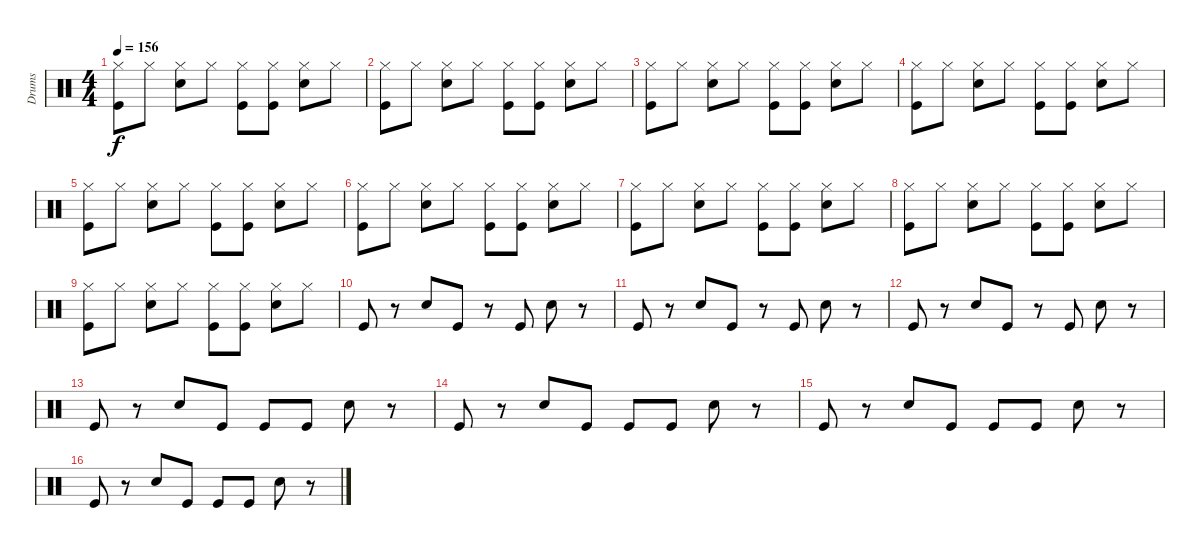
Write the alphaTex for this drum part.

\track ("Drums" "Drums") {instrument percussion}
\staff {score}
\articulation defaults
\ts (4 4)
\tempo 156
\clef neutral
\ks c
("Kick (hit)" "Hi-Hat (closed)").8{dy f} "Hi-Hat (closed)".8 ("Snare (hit) 2" "Hi-Hat (closed)").8 "Hi-Hat (closed)".8 ("Kick (hit)" "Hi-Hat (closed)").8 ("Kick (hit)" "Hi-Hat (closed)").8 ("Snare (hit) 2" "Hi-Hat (closed)").8 "Hi-Hat (closed)".8 |
("Kick (hit)" "Hi-Hat (closed)").8 "Hi-Hat (closed)".8 ("Snare (hit) 2" "Hi-Hat (closed)").8 "Hi-Hat (closed)".8 ("Kick (hit)" "Hi-Hat (closed)").8 ("Kick (hit)" "Hi-Hat (closed)").8 ("Snare (hit) 2" "Hi-Hat (closed)").8 "Hi-Hat (closed)".8 |
("Kick (hit)" "Hi-Hat (closed)").8 "Hi-Hat (closed)".8 ("Snare (hit) 2" "Hi-Hat (closed)").8 "Hi-Hat (closed)".8 ("Kick (hit)" "Hi-Hat (closed)").8 ("Kick (hit)" "Hi-Hat (closed)").8 ("Snare (hit) 2" "Hi-Hat (closed)").8 "Hi-Hat (closed)".8 |
("Kick (hit)" "Hi-Hat (closed)").8 "Hi-Hat (closed)".8 ("Snare (hit) 2" "Hi-Hat (closed)").8 "Hi-Hat (closed)".8 ("Kick (hit)" "Hi-Hat (closed)").8 ("Kick (hit)" "Hi-Hat (closed)").8 ("Snare (hit) 2" "Hi-Hat (closed)").8 "Hi-Hat (closed)".8 |
("Kick (hit)" "Hi-Hat (closed)").8 "Hi-Hat (closed)".8 ("Snare (hit) 2" "Hi-Hat (closed)").8 "Hi-Hat (closed)".8 ("Kick (hit)" "Hi-Hat (closed)").8 ("Kick (hit)" "Hi-Hat (closed)").8 ("Snare (hit) 2" "Hi-Hat (closed)").8 "Hi-Hat (closed)".8 |
("Kick (hit)" "Hi-Hat (closed)").8 "Hi-Hat (closed)".8 ("Snare (hit) 2" "Hi-Hat (closed)").8 "Hi-Hat (closed)".8 ("Kick (hit)" "Hi-Hat (closed)").8 ("Kick (hit)" "Hi-Hat (closed)").8 ("Snare (hit) 2" "Hi-Hat (closed)").8 "Hi-Hat (closed)".8 |
("Kick (hit)" "Hi-Hat (closed)").8 "Hi-Hat (closed)".8 ("Snare (hit) 2" "Hi-Hat (closed)").8 "Hi-Hat (closed)".8 ("Kick (hit)" "Hi-Hat (closed)").8 ("Kick (hit)" "Hi-Hat (closed)").8 ("Snare (hit) 2" "Hi-Hat (closed)").8 "Hi-Hat (closed)".8 |
("Kick (hit)" "Hi-Hat (closed)").8 "Hi-Hat (closed)".8 ("Snare (hit) 2" "Hi-Hat (closed)").8 "Hi-Hat (closed)".8 ("Kick (hit)" "Hi-Hat (closed)").8 ("Kick (hit)" "Hi-Hat (closed)").8 ("Snare (hit) 2" "Hi-Hat (closed)").8 "Hi-Hat (closed)".8 |
("Kick (hit)" "Hi-Hat (closed)").8 "Hi-Hat (closed)".8 ("Snare (hit) 2" "Hi-Hat (closed)").8 "Hi-Hat (closed)".8 ("Kick (hit)" "Hi-Hat (closed)").8 ("Kick (hit)" "Hi-Hat (closed)").8 ("Snare (hit) 2" "Hi-Hat (closed)").8 "Hi-Hat (closed)".8 |
"Kick (hit)".8 r.8 "Snare (hit) 2".8 "Kick (hit)".8 r.8 "Kick (hit)".8 "Snare (hit) 2".8 r.8 |
"Kick (hit)".8 r.8 "Snare (hit) 2".8 "Kick (hit)".8 r.8 "Kick (hit)".8 "Snare (hit) 2".8 r.8 |
"Kick (hit)".8 r.8 "Snare (hit) 2".8 "Kick (hit)".8 r.8 "Kick (hit)".8 "Snare (hit) 2".8 r.8 |
"Kick (hit)".8 r.8 "Snare (hit) 2".8 "Kick (hit)".8 "Kick (hit)".8 "Kick (hit)".8 "Snare (hit) 2".8 r.8 |
"Kick (hit)".8 r.8 "Snare (hit) 2".8 "Kick (hit)".8 "Kick (hit)".8 "Kick (hit)".8 "Snare (hit) 2".8 r.8 |
"Kick (hit)".8 r.8 "Snare (hit) 2".8 "Kick (hit)".8 "Kick (hit)".8 "Kick (hit)".8 "Snare (hit) 2".8 r.8 |
"Kick (hit)".8 r.8 "Snare (hit) 2".8 "Kick (hit)".8 "Kick (hit)".8 "Kick (hit)".8 "Snare (hit) 2".8 r.8
